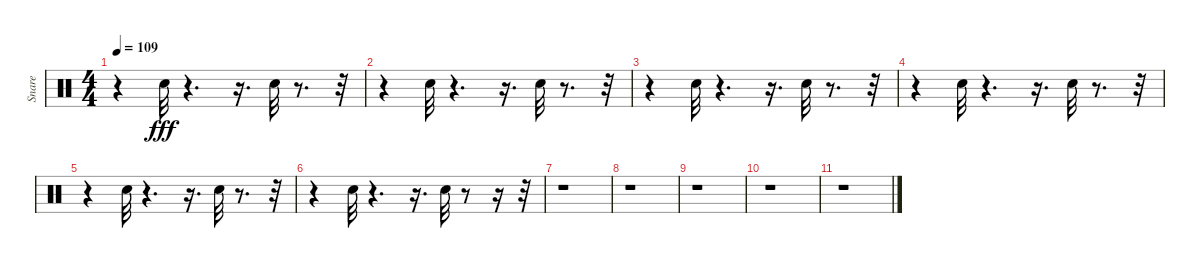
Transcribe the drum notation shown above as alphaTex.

\track ("Snare" "Snare") {instrument percussion}
\staff {score}
\articulation defaults
\ts (4 4)
\tempo 109
\clef neutral
\ks c
r.4{dy fff} "Electric Snare (hit)".32 r.4{d} r.16{d} "Electric Snare (hit)".32 r.8{d} r.32 |
r.4 "Electric Snare (hit)".32 r.4{d} r.16{d} "Electric Snare (hit)".32 r.8{d} r.32 |
r.4 "Electric Snare (hit)".32 r.4{d} r.16{d} "Electric Snare (hit)".32 r.8{d} r.32 |
r.4 "Electric Snare (hit)".32 r.4{d} r.16{d} "Electric Snare (hit)".32 r.8{d} r.32 |
r.4 "Electric Snare (hit)".32 r.4{d} r.16{d} "Electric Snare (hit)".32 r.8{d} r.32 |
r.4 "Electric Snare (hit)".32 r.4{d} r.16{d} "Electric Snare (hit)".32 r.8 r.16 r.32 |
r.1 |
r.1 |
r.1 |
r.1 |
r.1
